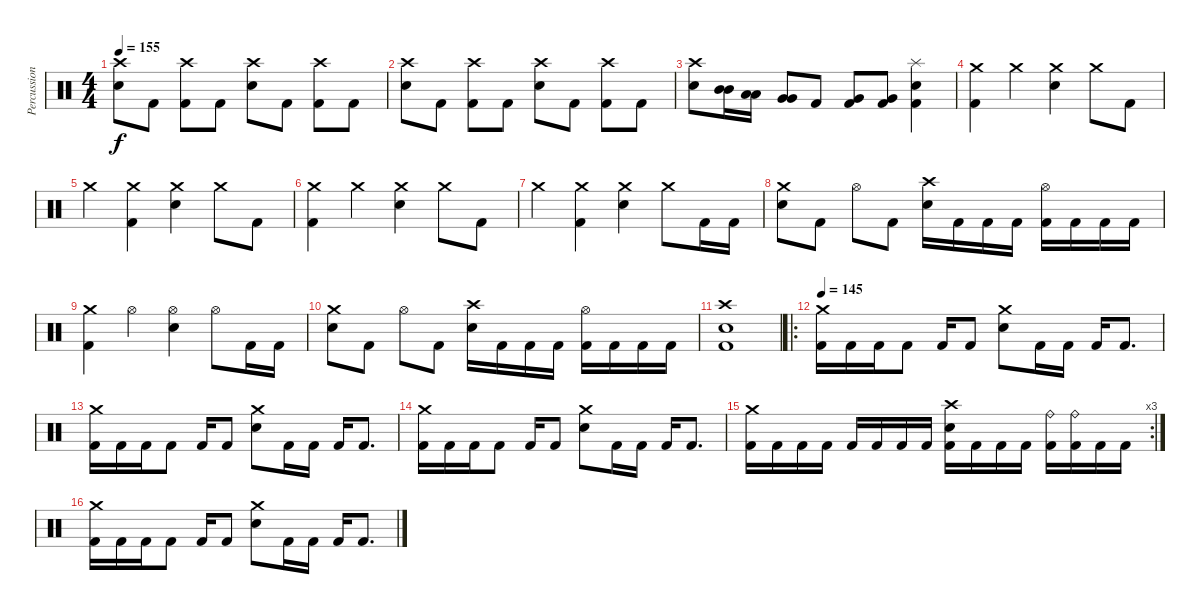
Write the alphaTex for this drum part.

\track ("Percussion" "Percussion") {instrument percussion}
\staff {score}
\articulation defaults
\ts (4 4)
\tempo 155
\clef neutral
\ks c
("Crash high (hit)" "Snare (hit) 2").8{dy f} "Kick (hit) 2".8 ("Crash high (hit)" "Kick (hit) 2").8 "Kick (hit) 2".8 ("Crash high (hit)" "Snare (hit) 2").8 "Kick (hit) 2".8 ("Crash high (hit)" "Kick (hit) 2").8 "Kick (hit) 2".8 |
("Crash high (hit)" "Snare (hit) 2").8 "Kick (hit) 2".8 ("Crash high (hit)" "Kick (hit) 2").8 "Kick (hit) 2".8 ("Crash high (hit)" "Snare (hit) 2").8 "Kick (hit) 2".8 ("Crash high (hit)" "Kick (hit) 2").8 "Kick (hit) 2".8 |
("Crash high (hit)" "Snare (hit) 2").8 ("Mid Tom (hit)" "Mid Tom (hit)").16 ("Low Tom (hit)" "Low Tom (hit)").16 ("Very Low Tom (hit)" "Very Low Tom (hit)").8 "Kick (hit) 2".8 ("Very Low Tom (hit)" "Kick (hit) 2").8 ("Very Low Tom (hit)" "Kick (hit) 2").8 ("Splash (hit)" "Snare (hit) 2" "Kick (hit) 2").4 |
("Crash medium (hit)" "Kick (hit) 2").4 "Crash medium (hit)".4 ("Crash medium (hit)" "Snare (hit) 2").4 "Crash medium (hit)".8 "Kick (hit) 2".8 |
"Crash medium (hit)".4 ("Crash medium (hit)" "Kick (hit) 2").4 ("Crash medium (hit)" "Snare (hit) 2").4 "Crash medium (hit)".8 "Kick (hit) 2".8 |
("Crash medium (hit)" "Kick (hit) 2").4 "Crash medium (hit)".4 ("Crash medium (hit)" "Snare (hit) 2").4 "Crash medium (hit)".8 "Kick (hit) 2".8 |
"Crash medium (hit)".4 ("Crash medium (hit)" "Kick (hit) 2").4 ("Crash medium (hit)" "Snare (hit) 2").4 "Crash medium (hit)".8 "Kick (hit) 2".16 "Kick (hit) 2".16 |
("Crash medium (hit)" "Snare (hit) 2").8 "Kick (hit) 2".8 "Hi-Hat (open)".8 "Kick (hit) 2".8 ("Crash high (hit)" "Snare (hit) 2").16 "Kick (hit) 2".16 "Kick (hit) 2".16 "Kick (hit) 2".16 ("Hi-Hat (open)" "Kick (hit) 2").16 "Kick (hit) 2".16 "Kick (hit) 2".16 "Kick (hit) 2".16 |
("Crash medium (hit)" "Kick (hit) 2").4 "Hi-Hat (open)".4 ("Hi-Hat (open)" "Snare (hit) 2").4 "Hi-Hat (open)".8 "Kick (hit) 2".16 "Kick (hit) 2".16 |
("Crash medium (hit)" "Snare (hit) 2").8 "Kick (hit) 2".8 "Hi-Hat (open)".8 "Kick (hit) 2".8 ("Crash high (hit)" "Snare (hit) 2").16 "Kick (hit) 2".16 "Kick (hit) 2".16 "Kick (hit) 2".16 ("Hi-Hat (open)" "Kick (hit) 2").16 "Kick (hit) 2".16 "Kick (hit) 2".16 "Kick (hit) 2".16 |
("Crash high (hit)" "Snare (hit) 2" "Kick (hit) 2").1 |
\ro
\tempo 145
("Crash medium (hit)" "Kick (hit) 2").16 "Kick (hit) 2".16 "Kick (hit) 2".16 "Kick (hit) 2".8 "Kick (hit) 2".16 "Kick (hit) 2".8 ("Crash medium (hit)" "Snare (hit) 2").8 "Kick (hit) 2".16 "Kick (hit) 2".16 "Kick (hit) 2".16 "Kick (hit) 2".8{d} |
("Crash medium (hit)" "Kick (hit) 2").16 "Kick (hit) 2".16 "Kick (hit) 2".16 "Kick (hit) 2".8 "Kick (hit) 2".16 "Kick (hit) 2".8 ("Crash medium (hit)" "Snare (hit) 2").8 "Kick (hit) 2".16 "Kick (hit) 2".16 "Kick (hit) 2".16 "Kick (hit) 2".8{d} |
("Crash medium (hit)" "Kick (hit) 2").16 "Kick (hit) 2".16 "Kick (hit) 2".16 "Kick (hit) 2".8 "Kick (hit) 2".16 "Kick (hit) 2".8 ("Crash medium (hit)" "Snare (hit) 2").8 "Kick (hit) 2".16 "Kick (hit) 2".16 "Kick (hit) 2".16 "Kick (hit) 2".8{d} |
\rc 3
("Crash medium (hit)" "Kick (hit) 2").16 "Kick (hit) 2".16 "Kick (hit) 2".16 "Kick (hit) 2".16 "Kick (hit) 2".16 "Kick (hit) 2".16 "Kick (hit) 2".16 "Kick (hit) 2".16 ("Crash high (hit)" "Snare (hit) 2" "Kick (hit) 2").16 "Kick (hit) 2".16 "Kick (hit) 2".16 "Kick (hit) 2".16 ("Ride (bell)" "Kick (hit) 2").16 ("Ride (bell)" "Kick (hit) 2").16 "Kick (hit) 2".16 "Kick (hit) 2".16 |
("Crash medium (hit)" "Kick (hit) 2").16 "Kick (hit) 2".16 "Kick (hit) 2".16 "Kick (hit) 2".8 "Kick (hit) 2".16 "Kick (hit) 2".8 ("Crash medium (hit)" "Snare (hit) 2").8 "Kick (hit) 2".16 "Kick (hit) 2".16 "Kick (hit) 2".16 "Kick (hit) 2".8{d}
